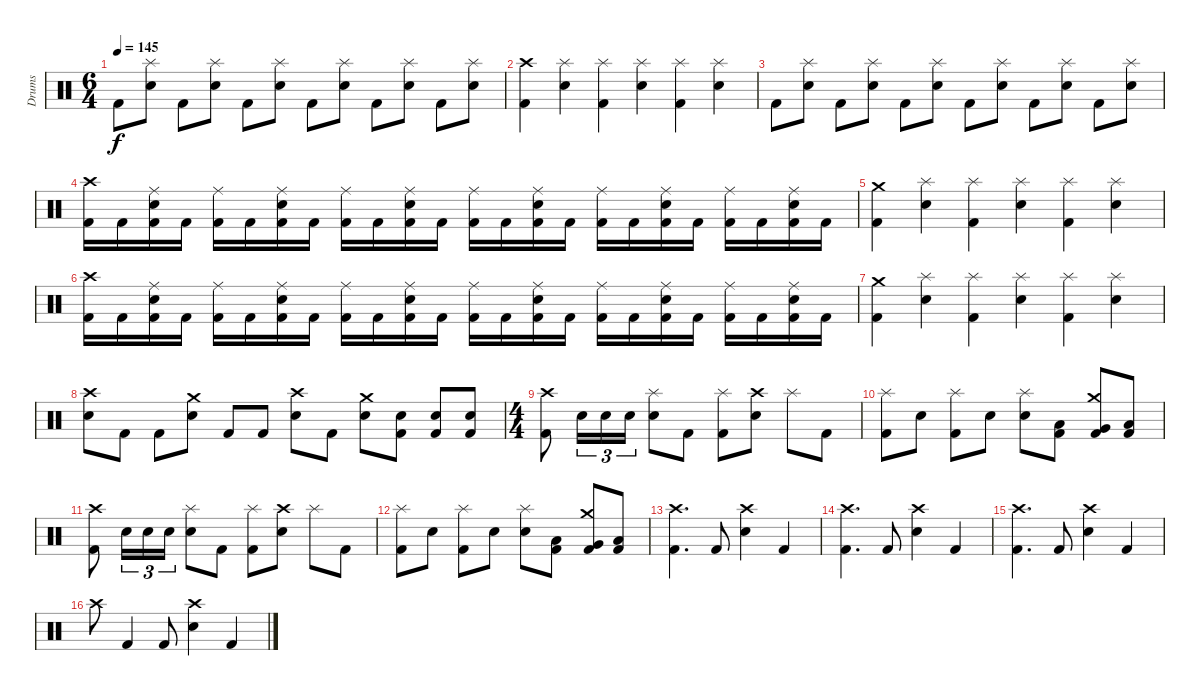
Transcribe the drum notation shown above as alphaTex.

\track ("Drums" "Drums") {instrument percussion}
\staff {score}
\articulation defaults
\ts (6 4)
\tempo 145
\clef neutral
\ks c "Kick (hit) 2".8{dy f}
("Splash (hit)" "Snare (hit) 2").8 "Kick (hit) 2".8 ("Splash (hit)" "Snare (hit) 2").8 "Kick (hit) 2".8 ("Splash (hit)" "Snare (hit) 2").8 "Kick (hit) 2".8 ("Splash (hit)" "Snare (hit) 2").8 "Kick (hit) 2".8 ("Splash (hit)" "Snare (hit) 2").8 "Kick (hit) 2".8 ("Splash (hit)" "Snare (hit) 2").8 |
("Crash high (hit)" "Kick (hit) 2").4 ("Splash (hit)" "Snare (hit) 2").4 ("Splash (hit)" "Kick (hit) 2").4 ("Splash (hit)" "Snare (hit) 2").4 ("Splash (hit)" "Kick (hit) 2").4 ("Splash (hit)" "Snare (hit) 2").4 |
"Kick (hit) 2".8 ("Splash (hit)" "Snare (hit) 2").8 "Kick (hit) 2".8 ("Splash (hit)" "Snare (hit) 2").8 "Kick (hit) 2".8 ("Splash (hit)" "Snare (hit) 2").8 "Kick (hit) 2".8 ("Splash (hit)" "Snare (hit) 2").8 "Kick (hit) 2".8 ("Splash (hit)" "Snare (hit) 2").8 "Kick (hit) 2".8 ("Splash (hit)" "Snare (hit) 2").8 |
("Crash high (hit)" "Kick (hit) 2").16 "Kick (hit) 2".16 ("Ride (middle)" "Snare (hit) 2" "Kick (hit) 2").16 "Kick (hit) 2".16 ("Ride (middle)" "Kick (hit) 2").16 "Kick (hit) 2".16 ("Ride (middle)" "Snare (hit) 2" "Kick (hit) 2").16 "Kick (hit) 2".16 ("Ride (middle)" "Kick (hit) 2").16 "Kick (hit) 2".16 ("Ride (middle)" "Snare (hit) 2" "Kick (hit) 2").16 "Kick (hit) 2".16 ("Ride (middle)" "Kick (hit) 2").16 "Kick (hit) 2".16 ("Ride (middle)" "Snare (hit) 2" "Kick (hit) 2").16 "Kick (hit) 2".16 ("Ride (middle)" "Kick (hit) 2").16 "Kick (hit) 2".16 ("Ride (middle)" "Snare (hit) 2" "Kick (hit) 2").16 "Kick (hit) 2".16 ("Ride (middle)" "Kick (hit) 2").16 "Kick (hit) 2".16 ("Ride (middle)" "Snare (hit) 2" "Kick (hit) 2").16 "Kick (hit) 2".16 |
("Crash medium (hit)" "Kick (hit) 2").4 ("Splash (hit)" "Snare (hit) 2").4 ("Splash (hit)" "Kick (hit) 2").4 ("Splash (hit)" "Snare (hit) 2").4 ("Splash (hit)" "Kick (hit) 2").4 ("Splash (hit)" "Snare (hit) 2").4 |
("Crash high (hit)" "Kick (hit) 2").16 "Kick (hit) 2".16 ("Ride (middle)" "Snare (hit) 2" "Kick (hit) 2").16 "Kick (hit) 2".16 ("Ride (middle)" "Kick (hit) 2").16 "Kick (hit) 2".16 ("Ride (middle)" "Snare (hit) 2" "Kick (hit) 2").16 "Kick (hit) 2".16 ("Ride (middle)" "Kick (hit) 2").16 "Kick (hit) 2".16 ("Ride (middle)" "Snare (hit) 2" "Kick (hit) 2").16 "Kick (hit) 2".16 ("Ride (middle)" "Kick (hit) 2").16 "Kick (hit) 2".16 ("Ride (middle)" "Snare (hit) 2" "Kick (hit) 2").16 "Kick (hit) 2".16 ("Ride (middle)" "Kick (hit) 2").16 "Kick (hit) 2".16 ("Ride (middle)" "Snare (hit) 2" "Kick (hit) 2").16 "Kick (hit) 2".16 ("Ride (middle)" "Kick (hit) 2").16 "Kick (hit) 2".16 ("Ride (middle)" "Snare (hit) 2" "Kick (hit) 2").16 "Kick (hit) 2".16 |
("Crash medium (hit)" "Kick (hit) 2").4 ("Splash (hit)" "Snare (hit) 2").4 ("Splash (hit)" "Kick (hit) 2").4 ("Splash (hit)" "Snare (hit) 2").4 ("Splash (hit)" "Kick (hit) 2").4 ("Splash (hit)" "Snare (hit) 2").4 |
("Crash high (hit)" "Snare (hit) 2").8 "Kick (hit) 2".8 "Kick (hit) 2".8 ("Crash medium (hit)" "Snare (hit) 2").8 "Kick (hit) 2".8 "Kick (hit) 2".8 ("Crash high (hit)" "Snare (hit) 2").8 "Kick (hit) 2".8 ("Crash medium (hit)" "Snare (hit) 2").8 ("Snare (hit) 2" "Kick (hit) 2").8 ("Snare (hit) 2" "Kick (hit) 2").8 ("Snare (hit) 2" "Kick (hit) 2").8 |
\ts (4 4)
("Crash high (hit)" "Kick (hit) 2").8 "Snare (hit) 2".16{tu (3 2)} "Snare (hit) 2".16{tu (3 2)} "Snare (hit) 2".16{tu (3 2)} ("Splash (hit)" "Snare (hit) 2").8 "Kick (hit) 2".8 ("Splash (hit)" "Kick (hit) 2").8 ("Crash high (hit)" "Snare (hit) 2").8 "Splash (hit)".8 "Kick (hit) 2".8 |
("Splash (hit)" "Kick (hit) 2").8 "Snare (hit) 2".8 ("Splash (hit)" "Kick (hit) 2").8 "Snare (hit) 2".8 ("Splash (hit)" "Snare (hit) 2").8 ("Low Tom (hit)" "Kick (hit) 2").8 ("Crash medium (hit)" "Very Low Tom (hit)" "Kick (hit) 2").8 ("Low Floor Tom (hit)" "Kick (hit) 2").8 |
("Crash high (hit)" "Kick (hit) 2").8 "Snare (hit) 2".16{tu (3 2)} "Snare (hit) 2".16{tu (3 2)} "Snare (hit) 2".16{tu (3 2)} ("Splash (hit)" "Snare (hit) 2").8 "Kick (hit) 2".8 ("Splash (hit)" "Kick (hit) 2").8 ("Crash high (hit)" "Snare (hit) 2").8 "Splash (hit)".8 "Kick (hit) 2".8 |
("Splash (hit)" "Kick (hit) 2").8 "Snare (hit) 2".8 ("Splash (hit)" "Kick (hit) 2").8 "Snare (hit) 2".8 ("Splash (hit)" "Snare (hit) 2").8 ("Low Tom (hit)" "Kick (hit) 2").8 ("Crash medium (hit)" "Very Low Tom (hit)" "Kick (hit) 2").8 ("Low Floor Tom (hit)" "Kick (hit) 2").8 |
("Crash high (hit)" "Kick (hit) 2").4{d} "Kick (hit) 2".8 ("Crash high (hit)" "Snare (hit) 2").4 "Kick (hit) 2".4 |
("Crash high (hit)" "Kick (hit) 2").4{d} "Kick (hit) 2".8 ("Crash high (hit)" "Snare (hit) 2").4 "Kick (hit) 2".4 |
("Crash high (hit)" "Kick (hit) 2").4{d} "Kick (hit) 2".8 ("Crash high (hit)" "Snare (hit) 2").4 "Kick (hit) 2".4 |
"Crash high (hit)".8 "Kick (hit) 2".4 "Kick (hit) 2".8 ("Crash high (hit)" "Snare (hit) 2").4 "Kick (hit) 2".4
